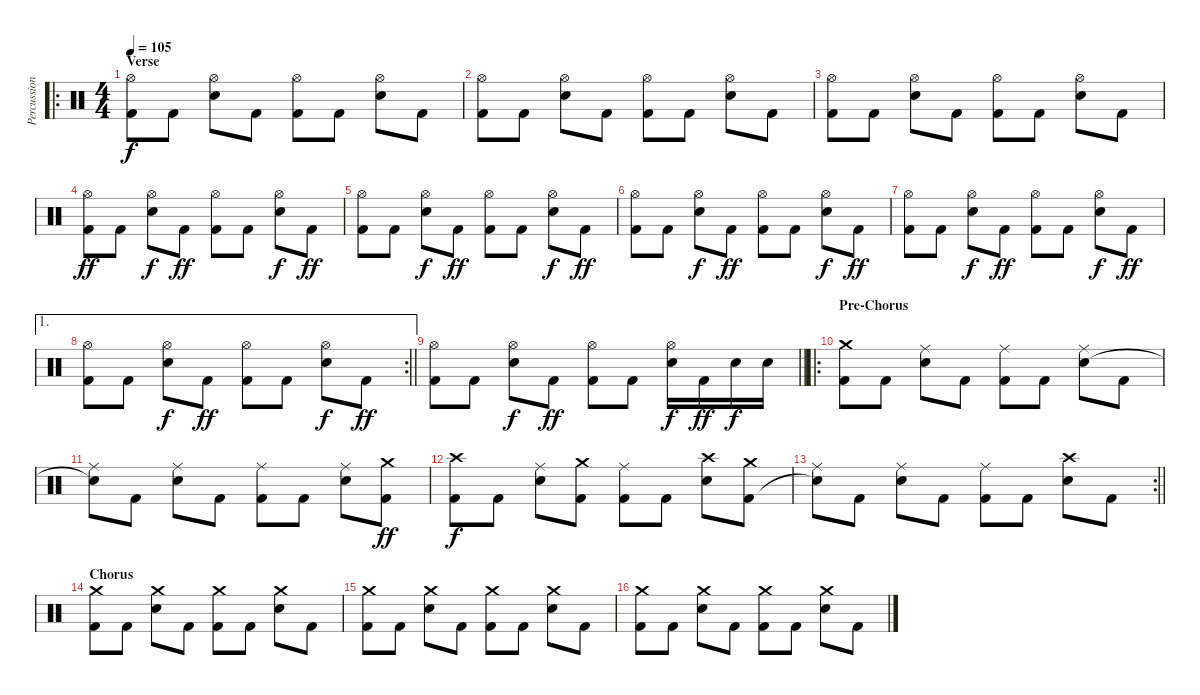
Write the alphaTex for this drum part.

\track ("Percussions" "Percussion") {instrument percussion}
\staff {score}
\articulation defaults
\ro
\ts (4 4)
\section ("" "Verse")
\tempo 105
\clef neutral
\ks c
("Hi-Hat (open)" "Kick (hit) 2").8{dy f} "Kick (hit) 2".8 ("Hi-Hat (open)" "Electric Snare (hit)").8 "Kick (hit) 2".8 ("Hi-Hat (open)" "Kick (hit) 2").8 "Kick (hit) 2".8 ("Hi-Hat (open)" "Electric Snare (hit)").8 "Kick (hit) 2".8 |
("Hi-Hat (open)" "Kick (hit) 2").8 "Kick (hit) 2".8 ("Hi-Hat (open)" "Electric Snare (hit)").8 "Kick (hit) 2".8 ("Hi-Hat (open)" "Kick (hit) 2").8 "Kick (hit) 2".8 ("Hi-Hat (open)" "Electric Snare (hit)").8 "Kick (hit) 2".8 |
("Hi-Hat (open)" "Kick (hit) 2").8 "Kick (hit) 2".8 ("Hi-Hat (open)" "Electric Snare (hit)").8 "Kick (hit) 2".8 ("Hi-Hat (open)" "Kick (hit) 2").8 "Kick (hit) 2".8 ("Hi-Hat (open)" "Electric Snare (hit)").8 "Kick (hit) 2".8 |
("Hi-Hat (open)" "Kick (hit) 2").8{dy ff} "Kick (hit) 2".8 ("Hi-Hat (open)" "Electric Snare (hit)").8{dy f} "Kick (hit) 2".8{dy ff} ("Hi-Hat (open)" "Kick (hit) 2").8 "Kick (hit) 2".8 ("Hi-Hat (open)" "Electric Snare (hit)").8{dy f} "Kick (hit) 2".8{dy ff} |
("Hi-Hat (open)" "Kick (hit) 2").8 "Kick (hit) 2".8 ("Hi-Hat (open)" "Electric Snare (hit)").8{dy f} "Kick (hit) 2".8{dy ff} ("Hi-Hat (open)" "Kick (hit) 2").8 "Kick (hit) 2".8 ("Hi-Hat (open)" "Electric Snare (hit)").8{dy f} "Kick (hit) 2".8{dy ff} |
("Hi-Hat (open)" "Kick (hit) 2").8 "Kick (hit) 2".8 ("Hi-Hat (open)" "Electric Snare (hit)").8{dy f} "Kick (hit) 2".8{dy ff} ("Hi-Hat (open)" "Kick (hit) 2").8 "Kick (hit) 2".8 ("Hi-Hat (open)" "Electric Snare (hit)").8{dy f} "Kick (hit) 2".8{dy ff} |
("Hi-Hat (open)" "Kick (hit) 2").8 "Kick (hit) 2".8 ("Hi-Hat (open)" "Electric Snare (hit)").8{dy f} "Kick (hit) 2".8{dy ff} ("Hi-Hat (open)" "Kick (hit) 2").8 "Kick (hit) 2".8 ("Hi-Hat (open)" "Electric Snare (hit)").8{dy f} "Kick (hit) 2".8{dy ff} |
\ae 1
\rc 2
\barLineRight lightlight
("Hi-Hat (open)" "Kick (hit) 2").8 "Kick (hit) 2".8 ("Hi-Hat (open)" "Electric Snare (hit)").8{dy f} "Kick (hit) 2".8{dy ff} ("Hi-Hat (open)" "Kick (hit) 2").8 "Kick (hit) 2".8 ("Hi-Hat (open)" "Electric Snare (hit)").8{dy f} "Kick (hit) 2".8{dy ff} |
\barLineRight lightlight
("Hi-Hat (open)" "Kick (hit) 2").8 "Kick (hit) 2".8 ("Hi-Hat (open)" "Electric Snare (hit)").8{dy f} "Kick (hit) 2".8{dy ff} ("Hi-Hat (open)" "Kick (hit) 2").8 "Kick (hit) 2".8 ("Hi-Hat (open)" "Electric Snare (hit)").16{dy f} "Kick (hit) 2".16{dy ff} "Electric Snare (hit)".16{dy f} "Electric Snare (hit)".16 |
\ro
\section ("" "Pre-Chorus")
("Crash medium (hit)" "Kick (hit) 2").8 "Kick (hit) 2".8 ("Ride (middle)" "Electric Snare (hit)").8 "Kick (hit) 2".8 ("Ride (middle)" "Kick (hit) 2").8 "Kick (hit) 2".8 ("Ride (middle)" "Electric Snare (hit)").8 "Kick (hit) 2".8 |
("Ride (middle)" "Snare (hit)"{t}).8 "Kick (hit) 2".8 ("Ride (middle)" "Electric Snare (hit)").8 "Kick (hit) 2".8 ("Ride (middle)" "Kick (hit) 2").8 "Kick (hit) 2".8 ("Ride (middle)" "Electric Snare (hit)").8 ("Crash medium (hit)" "Kick (hit) 2").8{dy ff} |
("Crash high (hit)" "Kick (hit) 2").8{dy f} "Kick (hit) 2".8 ("Ride (middle)" "Electric Snare (hit)").8 ("Crash medium (hit)" "Kick (hit) 2").8 ("Ride (middle)" "Kick (hit) 2").8 "Kick (hit) 2".8 ("Crash high (hit)" "Electric Snare (hit)").8 ("Crash medium (hit)" "Kick (hit) 2").8 |
\rc 2
\barLineRight lightlight
("Ride (middle)" "Snare (hit)"{t}).8 "Kick (hit) 2".8 ("Ride (middle)" "Electric Snare (hit)").8 "Kick (hit) 2".8 ("Ride (middle)" "Kick (hit) 2").8 "Kick (hit) 2".8 ("Crash high (hit)" "Electric Snare (hit)").8 "Kick (hit) 2".8 |
\section ("" "Chorus")
("Crash medium (hit)" "Kick (hit) 2").8 "Kick (hit) 2".8 ("Crash medium (hit)" "Electric Snare (hit)").8 "Kick (hit) 2".8 ("Crash medium (hit)" "Kick (hit) 2").8 "Kick (hit) 2".8 ("Crash medium (hit)" "Electric Snare (hit)").8 "Kick (hit) 2".8 |
("Crash medium (hit)" "Kick (hit) 2").8 "Kick (hit) 2".8 ("Crash medium (hit)" "Electric Snare (hit)").8 "Kick (hit) 2".8 ("Crash medium (hit)" "Kick (hit) 2").8 "Kick (hit) 2".8 ("Crash medium (hit)" "Electric Snare (hit)").8 "Kick (hit) 2".8 |
("Crash medium (hit)" "Kick (hit) 2").8 "Kick (hit) 2".8 ("Crash medium (hit)" "Electric Snare (hit)").8 "Kick (hit) 2".8 ("Crash medium (hit)" "Kick (hit) 2").8 "Kick (hit) 2".8 ("Crash medium (hit)" "Electric Snare (hit)").8 "Kick (hit) 2".8
